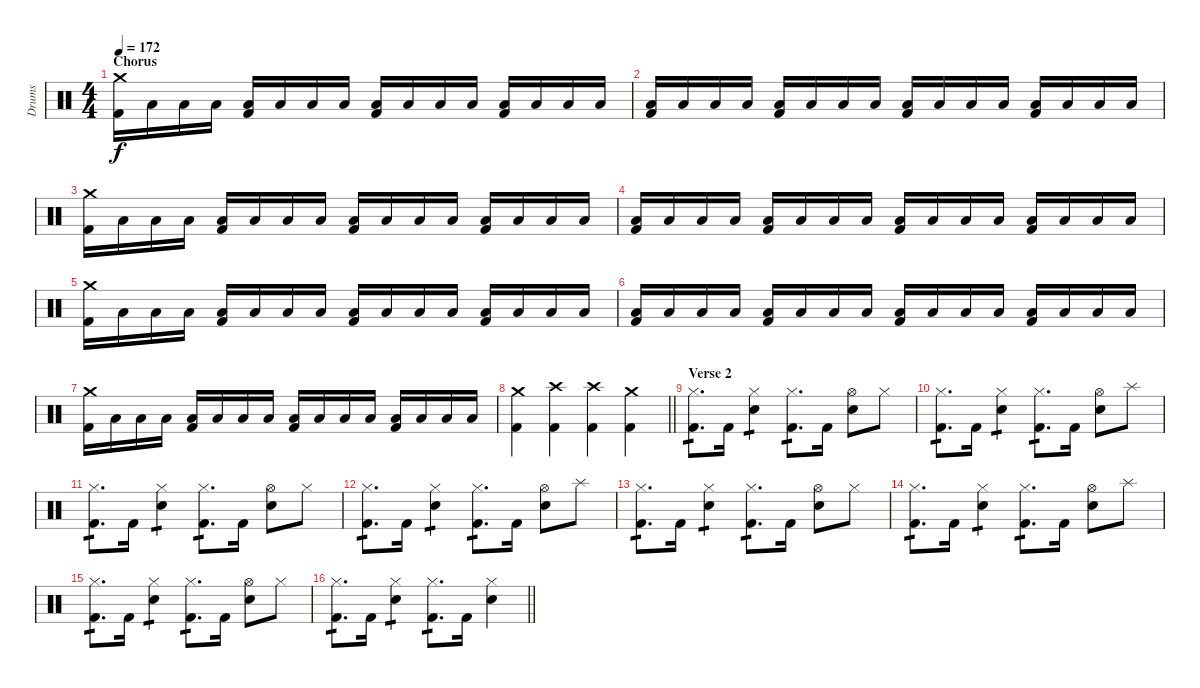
\track ("Drums" "Drums") {instrument percussion}
\staff {score}
\articulation defaults
\ts (4 4)
\section ("" "Chorus")
\tempo 172
\clef neutral
\ks c
("Crash medium (hit)" "Kick (hit) 2").16{dy f} "Low Tom (hit)".16 "Low Tom (hit)".16 "Low Tom (hit)".16 ("Low Tom (hit)" "Kick (hit) 2").16 "Low Tom (hit)".16 "Low Tom (hit)".16 "Low Tom (hit)".16 ("Low Tom (hit)" "Kick (hit) 2").16 "Low Tom (hit)".16 "Low Tom (hit)".16 "Low Tom (hit)".16 ("Low Tom (hit)" "Kick (hit) 2").16 "Low Tom (hit)".16 "Low Tom (hit)".16 "Low Tom (hit)".16 |
("Low Tom (hit)" "Kick (hit) 2").16 "Low Tom (hit)".16 "Low Tom (hit)".16 "Low Tom (hit)".16 ("Low Tom (hit)" "Kick (hit) 2").16 "Low Tom (hit)".16 "Low Tom (hit)".16 "Low Tom (hit)".16 ("Low Tom (hit)" "Kick (hit) 2").16 "Low Tom (hit)".16 "Low Tom (hit)".16 "Low Tom (hit)".16 ("Low Tom (hit)" "Kick (hit) 2").16 "Low Tom (hit)".16 "Low Tom (hit)".16 "Low Tom (hit)".16 |
("Crash medium (hit)" "Kick (hit) 2").16 "Low Tom (hit)".16 "Low Tom (hit)".16 "Low Tom (hit)".16 ("Low Tom (hit)" "Kick (hit) 2").16 "Low Tom (hit)".16 "Low Tom (hit)".16 "Low Tom (hit)".16 ("Low Tom (hit)" "Kick (hit) 2").16 "Low Tom (hit)".16 "Low Tom (hit)".16 "Low Tom (hit)".16 ("Low Tom (hit)" "Kick (hit) 2").16 "Low Tom (hit)".16 "Low Tom (hit)".16 "Low Tom (hit)".16 |
("Low Tom (hit)" "Kick (hit) 2").16 "Low Tom (hit)".16 "Low Tom (hit)".16 "Low Tom (hit)".16 ("Low Tom (hit)" "Kick (hit) 2").16 "Low Tom (hit)".16 "Low Tom (hit)".16 "Low Tom (hit)".16 ("Low Tom (hit)" "Kick (hit) 2").16 "Low Tom (hit)".16 "Low Tom (hit)".16 "Low Tom (hit)".16 ("Low Tom (hit)" "Kick (hit) 2").16 "Low Tom (hit)".16 "Low Tom (hit)".16 "Low Tom (hit)".16 |
("Crash medium (hit)" "Kick (hit) 2").16 "Low Tom (hit)".16 "Low Tom (hit)".16 "Low Tom (hit)".16 ("Low Tom (hit)" "Kick (hit) 2").16 "Low Tom (hit)".16 "Low Tom (hit)".16 "Low Tom (hit)".16 ("Low Tom (hit)" "Kick (hit) 2").16 "Low Tom (hit)".16 "Low Tom (hit)".16 "Low Tom (hit)".16 ("Low Tom (hit)" "Kick (hit) 2").16 "Low Tom (hit)".16 "Low Tom (hit)".16 "Low Tom (hit)".16 |
("Low Tom (hit)" "Kick (hit) 2").16 "Low Tom (hit)".16 "Low Tom (hit)".16 "Low Tom (hit)".16 ("Low Tom (hit)" "Kick (hit) 2").16 "Low Tom (hit)".16 "Low Tom (hit)".16 "Low Tom (hit)".16 ("Low Tom (hit)" "Kick (hit) 2").16 "Low Tom (hit)".16 "Low Tom (hit)".16 "Low Tom (hit)".16 ("Low Tom (hit)" "Kick (hit) 2").16 "Low Tom (hit)".16 "Low Tom (hit)".16 "Low Tom (hit)".16 |
("Crash medium (hit)" "Kick (hit) 2").16 "Low Tom (hit)".16 "Low Tom (hit)".16 "Low Tom (hit)".16 ("Low Tom (hit)" "Kick (hit) 2").16 "Low Tom (hit)".16 "Low Tom (hit)".16 "Low Tom (hit)".16 ("Low Tom (hit)" "Kick (hit) 2").16 "Low Tom (hit)".16 "Low Tom (hit)".16 "Low Tom (hit)".16 ("Low Tom (hit)" "Kick (hit) 2").16 "Low Tom (hit)".16 "Low Tom (hit)".16 "Low Tom (hit)".16 |
\barLineRight lightlight
("Crash medium (hit)" "Kick (hit) 2").4 ("Crash high (hit)" "Kick (hit) 2").4 ("Crash high (hit)" "Kick (hit) 2").4 ("Crash medium (hit)" "Kick (hit) 2").4 |
\section ("" "Verse 2")
("Hi-Hat (closed)" "Kick (hit) 2").8{d tp 1} "Kick (hit) 2".16 ("Hi-Hat (closed)" "Electric Snare (hit)").4{tp 1} ("Hi-Hat (closed)" "Kick (hit) 2").8{d tp 1} "Kick (hit) 2".16 ("Hi-Hat (open)" "Electric Snare (hit)").8 "Hi-Hat (closed)".8 |
("Hi-Hat (closed)" "Kick (hit) 2").8{d tp 1} "Kick (hit) 2".16 ("Hi-Hat (closed)" "Electric Snare (hit)").4{tp 1} ("Hi-Hat (closed)" "Kick (hit) 2").8{d tp 1} "Kick (hit) 2".16 ("Hi-Hat (open)" "Electric Snare (hit)").8 "Splash (hit)".8 |
("Hi-Hat (closed)" "Kick (hit) 2").8{d tp 1} "Kick (hit) 2".16 ("Hi-Hat (closed)" "Electric Snare (hit)").4{tp 1} ("Hi-Hat (closed)" "Kick (hit) 2").8{d tp 1} "Kick (hit) 2".16 ("Hi-Hat (open)" "Electric Snare (hit)").8 "Hi-Hat (closed)".8 |
("Hi-Hat (closed)" "Kick (hit) 2").8{d tp 1} "Kick (hit) 2".16 ("Hi-Hat (closed)" "Electric Snare (hit)").4{tp 1} ("Hi-Hat (closed)" "Kick (hit) 2").8{d tp 1} "Kick (hit) 2".16 ("Hi-Hat (open)" "Electric Snare (hit)").8 "Splash (hit)".8 |
("Hi-Hat (closed)" "Kick (hit) 2").8{d tp 1} "Kick (hit) 2".16 ("Hi-Hat (closed)" "Electric Snare (hit)").4{tp 1} ("Hi-Hat (closed)" "Kick (hit) 2").8{d tp 1} "Kick (hit) 2".16 ("Hi-Hat (open)" "Electric Snare (hit)").8 "Hi-Hat (closed)".8 |
("Hi-Hat (closed)" "Kick (hit) 2").8{d tp 1} "Kick (hit) 2".16 ("Hi-Hat (closed)" "Electric Snare (hit)").4{tp 1} ("Hi-Hat (closed)" "Kick (hit) 2").8{d tp 1} "Kick (hit) 2".16 ("Hi-Hat (open)" "Electric Snare (hit)").8 "Splash (hit)".8 |
("Hi-Hat (closed)" "Kick (hit) 2").8{d tp 1} "Kick (hit) 2".16 ("Hi-Hat (closed)" "Electric Snare (hit)").4{tp 1} ("Hi-Hat (closed)" "Kick (hit) 2").8{d tp 1} "Kick (hit) 2".16 ("Hi-Hat (open)" "Electric Snare (hit)").8 "Hi-Hat (closed)".8 |
\barLineRight lightlight
("Hi-Hat (closed)" "Kick (hit) 2").8{d tp 1} "Kick (hit) 2".16 ("Hi-Hat (closed)" "Electric Snare (hit)").4{tp 1} ("Hi-Hat (closed)" "Kick (hit) 2").8{d tp 1} "Kick (hit) 2".16 ("Hi-Hat (closed)" "Electric Snare (hit)").4
